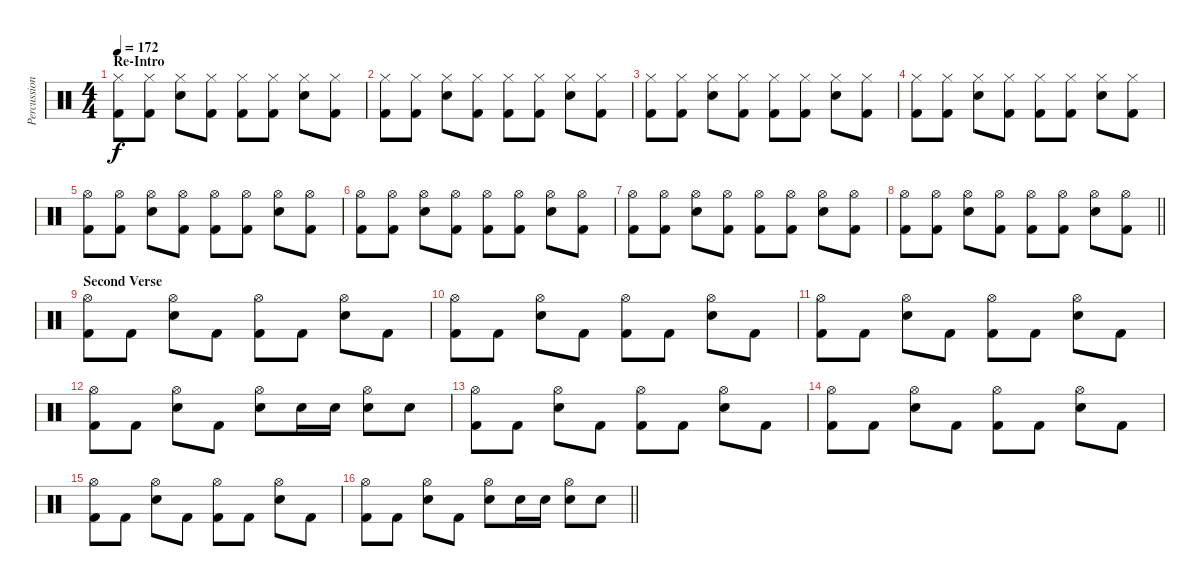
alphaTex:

\track ("Percussion" "Percussion") {instrument percussion}
\staff {score}
\articulation defaults
\ts (4 4)
\section ("" "Re-Intro")
\tempo 172
\clef neutral
\ks c
("Hi-Hat (closed)" "Kick (hit) 2").8{dy f} ("Hi-Hat (closed)" "Kick (hit) 2").8 ("Hi-Hat (closed)" "Electric Snare (hit)").8 ("Hi-Hat (closed)" "Kick (hit) 2").8 ("Hi-Hat (closed)" "Kick (hit) 2").8 ("Hi-Hat (closed)" "Kick (hit) 2").8 ("Hi-Hat (closed)" "Electric Snare (hit)").8 ("Hi-Hat (closed)" "Kick (hit) 2").8 |
("Hi-Hat (closed)" "Kick (hit) 2").8 ("Hi-Hat (closed)" "Kick (hit) 2").8 ("Hi-Hat (closed)" "Electric Snare (hit)").8 ("Hi-Hat (closed)" "Kick (hit) 2").8 ("Hi-Hat (closed)" "Kick (hit) 2").8 ("Hi-Hat (closed)" "Kick (hit) 2").8 ("Hi-Hat (closed)" "Electric Snare (hit)").8 ("Hi-Hat (closed)" "Kick (hit) 2").8 |
("Hi-Hat (closed)" "Kick (hit) 2").8 ("Hi-Hat (closed)" "Kick (hit) 2").8 ("Hi-Hat (closed)" "Electric Snare (hit)").8 ("Hi-Hat (closed)" "Kick (hit) 2").8 ("Hi-Hat (closed)" "Kick (hit) 2").8 ("Hi-Hat (closed)" "Kick (hit) 2").8 ("Hi-Hat (closed)" "Electric Snare (hit)").8 ("Hi-Hat (closed)" "Kick (hit) 2").8 |
("Hi-Hat (closed)" "Kick (hit) 2").8 ("Hi-Hat (closed)" "Kick (hit) 2").8 ("Hi-Hat (closed)" "Electric Snare (hit)").8 ("Hi-Hat (closed)" "Kick (hit) 2").8 ("Hi-Hat (closed)" "Kick (hit) 2").8 ("Hi-Hat (closed)" "Kick (hit) 2").8 ("Hi-Hat (closed)" "Electric Snare (hit)").8 ("Hi-Hat (closed)" "Kick (hit) 2").8 |
("Hi-Hat (open)" "Kick (hit) 2").8 ("Hi-Hat (open)" "Kick (hit) 2").8 ("Hi-Hat (open)" "Electric Snare (hit)").8 ("Hi-Hat (open)" "Kick (hit) 2").8 ("Hi-Hat (open)" "Kick (hit) 2").8 ("Hi-Hat (open)" "Kick (hit) 2").8 ("Hi-Hat (open)" "Electric Snare (hit)").8 ("Hi-Hat (open)" "Kick (hit) 2").8 |
("Hi-Hat (open)" "Kick (hit) 2").8 ("Hi-Hat (open)" "Kick (hit) 2").8 ("Hi-Hat (open)" "Electric Snare (hit)").8 ("Hi-Hat (open)" "Kick (hit) 2").8 ("Hi-Hat (open)" "Kick (hit) 2").8 ("Hi-Hat (open)" "Kick (hit) 2").8 ("Hi-Hat (open)" "Electric Snare (hit)").8 ("Hi-Hat (open)" "Kick (hit) 2").8 |
("Hi-Hat (open)" "Kick (hit) 2").8 ("Hi-Hat (open)" "Kick (hit) 2").8 ("Hi-Hat (open)" "Electric Snare (hit)").8 ("Hi-Hat (open)" "Kick (hit) 2").8 ("Hi-Hat (open)" "Kick (hit) 2").8 ("Hi-Hat (open)" "Kick (hit) 2").8 ("Hi-Hat (open)" "Electric Snare (hit)").8 ("Hi-Hat (open)" "Kick (hit) 2").8 |
\barLineRight lightlight
("Hi-Hat (open)" "Kick (hit) 2").8 ("Hi-Hat (open)" "Kick (hit) 2").8 ("Hi-Hat (open)" "Electric Snare (hit)").8 ("Hi-Hat (open)" "Kick (hit) 2").8 ("Hi-Hat (open)" "Kick (hit) 2").8 ("Hi-Hat (open)" "Kick (hit) 2").8 ("Hi-Hat (open)" "Electric Snare (hit)").8 ("Hi-Hat (open)" "Kick (hit) 2").8 |
\section ("" "Second Verse")
("Hi-Hat (open)" "Kick (hit) 2").8 "Kick (hit) 2".8 ("Hi-Hat (open)" "Electric Snare (hit)").8 "Kick (hit) 2".8 ("Hi-Hat (open)" "Kick (hit) 2").8 "Kick (hit) 2".8 ("Hi-Hat (open)" "Electric Snare (hit)").8 "Kick (hit) 2".8 |
("Hi-Hat (open)" "Kick (hit) 2").8 "Kick (hit) 2".8 ("Hi-Hat (open)" "Electric Snare (hit)").8 "Kick (hit) 2".8 ("Hi-Hat (open)" "Kick (hit) 2").8 "Kick (hit) 2".8 ("Hi-Hat (open)" "Electric Snare (hit)").8 "Kick (hit) 2".8 |
("Hi-Hat (open)" "Kick (hit) 2").8 "Kick (hit) 2".8 ("Hi-Hat (open)" "Electric Snare (hit)").8 "Kick (hit) 2".8 ("Hi-Hat (open)" "Kick (hit) 2").8 "Kick (hit) 2".8 ("Hi-Hat (open)" "Electric Snare (hit)").8 "Kick (hit) 2".8 |
("Hi-Hat (open)" "Kick (hit) 2").8 "Kick (hit) 2".8 ("Hi-Hat (open)" "Electric Snare (hit)").8 "Kick (hit) 2".8 ("Hi-Hat (open)" "Electric Snare (hit)").8 "Electric Snare (hit)".16 "Electric Snare (hit)".16 ("Hi-Hat (open)" "Electric Snare (hit)").8 "Electric Snare (hit)".8 |
("Hi-Hat (open)" "Kick (hit) 2").8 "Kick (hit) 2".8 ("Hi-Hat (open)" "Electric Snare (hit)").8 "Kick (hit) 2".8 ("Hi-Hat (open)" "Kick (hit) 2").8 "Kick (hit) 2".8 ("Hi-Hat (open)" "Electric Snare (hit)").8 "Kick (hit) 2".8 |
("Hi-Hat (open)" "Kick (hit) 2").8 "Kick (hit) 2".8 ("Hi-Hat (open)" "Electric Snare (hit)").8 "Kick (hit) 2".8 ("Hi-Hat (open)" "Kick (hit) 2").8 "Kick (hit) 2".8 ("Hi-Hat (open)" "Electric Snare (hit)").8 "Kick (hit) 2".8 |
("Hi-Hat (open)" "Kick (hit) 2").8 "Kick (hit) 2".8 ("Hi-Hat (open)" "Electric Snare (hit)").8 "Kick (hit) 2".8 ("Hi-Hat (open)" "Kick (hit) 2").8 "Kick (hit) 2".8 ("Hi-Hat (open)" "Electric Snare (hit)").8 "Kick (hit) 2".8 |
\barLineRight lightlight
("Hi-Hat (open)" "Kick (hit) 2").8 "Kick (hit) 2".8 ("Hi-Hat (open)" "Electric Snare (hit)").8 "Kick (hit) 2".8 ("Hi-Hat (open)" "Electric Snare (hit)").8 "Electric Snare (hit)".16 "Electric Snare (hit)".16 ("Hi-Hat (open)" "Electric Snare (hit)").8 "Electric Snare (hit)".8
